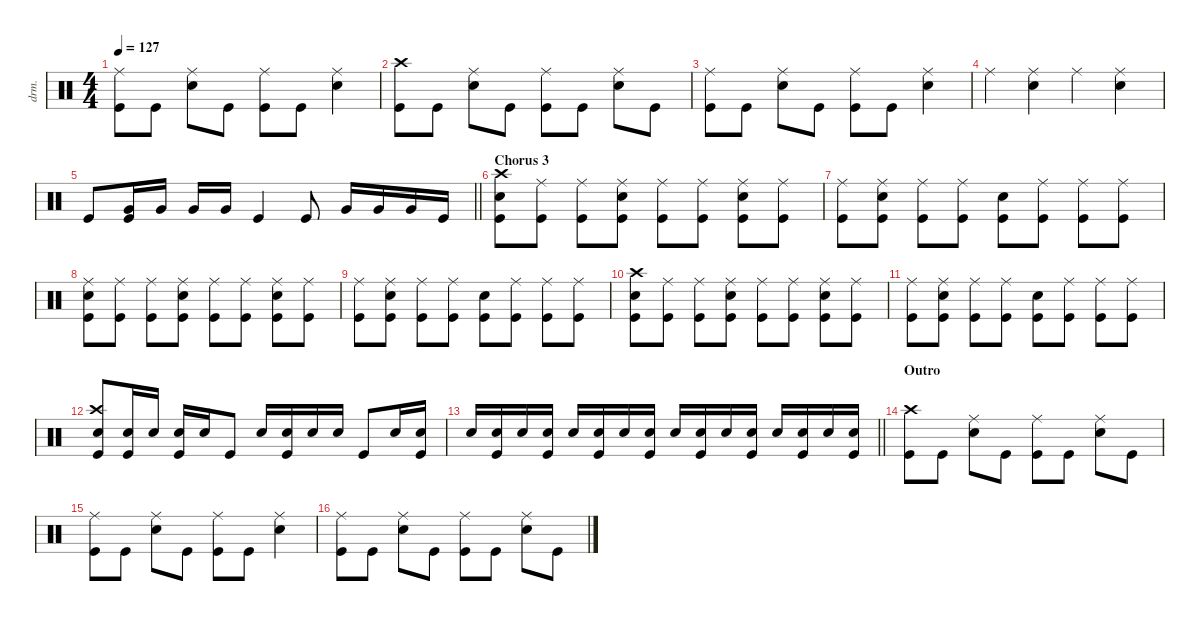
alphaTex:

\defaultSystemsLayout 4
\hideDynamics
\bracketExtendMode nobrackets
\otherSystemsTrackNameOrientation horizontal
\track ("Drums" "drm.") {defaultSystemsLayout 4 instrument percussion}
\staff {score}
\articulation defaults
\ts (4 4)
\tempo 127
\clef neutral
\ks c
("Ride (middle)" "Kick (hit)").8{dy f beam Down} "Kick (hit)".8{beam Down} ("Ride (middle)" "Snare (hit) 2").8{beam Down} "Kick (hit)".8{beam Down} ("Ride (middle)" "Kick (hit)").8{beam Down} "Kick (hit)".8{beam Down} ("Ride (middle)" "Snare (hit) 2").4{beam Down} |
("Crash high (hit)" "Kick (hit)").8{beam Down} "Kick (hit)".8{beam Down} ("Ride (middle)" "Snare (hit) 2").8{beam Down} "Kick (hit)".8{beam Down} ("Ride (middle)" "Kick (hit)").8{beam Down} "Kick (hit)".8{beam Down} ("Ride (middle)" "Snare (hit) 2").8{beam Down} "Kick (hit)".8{beam Down} |
("Ride (middle)" "Kick (hit)").8{beam Down} "Kick (hit)".8{beam Down} ("Ride (middle)" "Snare (hit) 2").8{beam Down} "Kick (hit)".8{beam Down} ("Ride (middle)" "Kick (hit)").8{beam Down} "Kick (hit)".8{beam Down} ("Ride (middle)" "Snare (hit) 2").4{beam Down} |
"Ride (middle)".4{beam Down} ("Ride (middle)" "Snare (hit) 2").4{beam Down} "Ride (middle)".4{beam Down} ("Ride (middle)" "Snare (hit) 2").4{beam Down} |
\barLineRight lightlight "Kick (hit)".8{beam Up}
("Very Low Tom (hit)" "Kick (hit)").16{beam Up} "Very Low Tom (hit)".16{beam Up} "Very Low Tom (hit)".16{beam Up} "Very Low Tom (hit)".16{beam Up} "Kick (hit)".4{beam Up} "Kick (hit)".8{beam Up} "Very Low Tom (hit)".16{beam Up} "Very Low Tom (hit)".16{beam Up} "Very Low Tom (hit)".16{beam Up} "Kick (hit)".16{beam Up} |
\section ("" "Chorus 3")
("Crash high (hit)" "Snare (hit) 2" "Kick (hit)").8{beam Down} ("Ride (middle)" "Kick (hit)").8{beam Down} ("Ride (middle)" "Kick (hit)").8{beam Down} ("Ride (middle)" "Snare (hit) 2" "Kick (hit)").8{beam Down} ("Ride (middle)" "Kick (hit)").8{beam Down} ("Ride (middle)" "Kick (hit)").8{beam Down} ("Ride (middle)" "Snare (hit) 2" "Kick (hit)").8{beam Down} ("Ride (middle)" "Kick (hit)").8{beam Down} |
("Ride (middle)" "Kick (hit)").8{beam Down} ("Ride (middle)" "Snare (hit) 2" "Kick (hit)").8{beam Down} ("Ride (middle)" "Kick (hit)").8{beam Down} ("Ride (middle)" "Kick (hit)").8{beam Down} ("Snare (hit) 2" "Kick (hit)").8{beam Down} ("Ride (middle)" "Kick (hit)").8{beam Down} ("Ride (middle)" "Kick (hit)").8{beam Down} ("Ride (middle)" "Kick (hit)").8{beam Down} |
("Ride (middle)" "Snare (hit) 2" "Kick (hit)").8{beam Down} ("Ride (middle)" "Kick (hit)").8{beam Down} ("Ride (middle)" "Kick (hit)").8{beam Down} ("Ride (middle)" "Snare (hit) 2" "Kick (hit)").8{beam Down} ("Ride (middle)" "Kick (hit)").8{beam Down} ("Ride (middle)" "Kick (hit)").8{beam Down} ("Ride (middle)" "Snare (hit) 2" "Kick (hit)").8{beam Down} ("Ride (middle)" "Kick (hit)").8{beam Down} |
("Ride (middle)" "Kick (hit)").8{beam Down} ("Ride (middle)" "Snare (hit) 2" "Kick (hit)").8{beam Down} ("Ride (middle)" "Kick (hit)").8{beam Down} ("Ride (middle)" "Kick (hit)").8{beam Down} ("Snare (hit) 2" "Kick (hit)").8{beam Down} ("Ride (middle)" "Kick (hit)").8{beam Down} ("Ride (middle)" "Kick (hit)").8{beam Down} ("Ride (middle)" "Kick (hit)").8{beam Down} |
("Crash high (hit)" "Snare (hit) 2" "Kick (hit)").8{beam Down} ("Ride (middle)" "Kick (hit)").8{beam Down} ("Ride (middle)" "Kick (hit)").8{beam Down} ("Ride (middle)" "Snare (hit) 2" "Kick (hit)").8{beam Down} ("Ride (middle)" "Kick (hit)").8{beam Down} ("Ride (middle)" "Kick (hit)").8{beam Down} ("Ride (middle)" "Snare (hit) 2" "Kick (hit)").8{beam Down} ("Ride (middle)" "Kick (hit)").8{beam Down} |
("Ride (middle)" "Kick (hit)").8{beam Down} ("Ride (middle)" "Snare (hit) 2" "Kick (hit)").8{beam Down} ("Ride (middle)" "Kick (hit)").8{beam Down} ("Ride (middle)" "Kick (hit)").8{beam Down} ("Snare (hit) 2" "Kick (hit)").8{beam Down} ("Ride (middle)" "Kick (hit)").8{beam Down} ("Ride (middle)" "Kick (hit)").8{beam Down} ("Ride (middle)" "Kick (hit)").8{beam Down} |
("Crash high (hit)" "Snare (hit) 2" "Kick (hit)").8{beam Up} ("Snare (hit) 2" "Kick (hit)").16{beam Up} "Snare (hit) 2".16{beam Up} ("Snare (hit) 2" "Kick (hit)").16{beam Up} "Snare (hit) 2".16{beam Up} "Kick (hit)".8{beam Up} "Snare (hit) 2".16{beam Up} ("Snare (hit) 2" "Kick (hit)").16{beam Up} "Snare (hit) 2".16{beam Up} "Snare (hit) 2".16{beam Up} "Kick (hit)".8{beam Up} "Snare (hit) 2".16{beam Up} ("Snare (hit) 2" "Kick (hit)").16{beam Up} |
\barLineRight lightlight "Snare (hit) 2".16{beam Up}
("Snare (hit) 2" "Kick (hit)").16{beam Up} "Snare (hit) 2".16{beam Up} ("Snare (hit) 2" "Kick (hit)").16{beam Up} "Snare (hit) 2".16{beam Up} ("Snare (hit) 2" "Kick (hit)").16{beam Up} "Snare (hit) 2".16{beam Up} ("Snare (hit) 2" "Kick (hit)").16{beam Up} "Snare (hit) 2".16{beam Up} ("Snare (hit) 2" "Kick (hit)").16{beam Up} "Snare (hit) 2".16{beam Up} ("Snare (hit) 2" "Kick (hit)").16{beam Up} "Snare (hit) 2".16{beam Up} ("Snare (hit) 2" "Kick (hit)").16{beam Up} "Snare (hit) 2".16{beam Up} ("Snare (hit) 2" "Kick (hit)").16{beam Up} |
\section ("" "Outro")
("Crash high (hit)" "Kick (hit)").8{beam Down} "Kick (hit)".8{beam Down} ("Ride (middle)" "Snare (hit) 2").8{beam Down} "Kick (hit)".8{beam Down} ("Ride (middle)" "Kick (hit)").8{beam Down} "Kick (hit)".8{beam Down} ("Ride (middle)" "Snare (hit) 2").8{beam Down} "Kick (hit)".8{beam Down} |
("Ride (middle)" "Kick (hit)").8{beam Down} "Kick (hit)".8{beam Down} ("Ride (middle)" "Snare (hit) 2").8{beam Down} "Kick (hit)".8{beam Down} ("Ride (middle)" "Kick (hit)").8{beam Down} "Kick (hit)".8{beam Down} ("Ride (middle)" "Snare (hit) 2").4{beam Down} |
("Ride (middle)" "Kick (hit)").8{beam Down} "Kick (hit)".8{beam Down} ("Ride (middle)" "Snare (hit) 2").8{beam Down} "Kick (hit)".8{beam Down} ("Ride (middle)" "Kick (hit)").8{beam Down} "Kick (hit)".8{beam Down} ("Ride (middle)" "Snare (hit) 2").8{beam Down} "Kick (hit)".8{beam Down}
